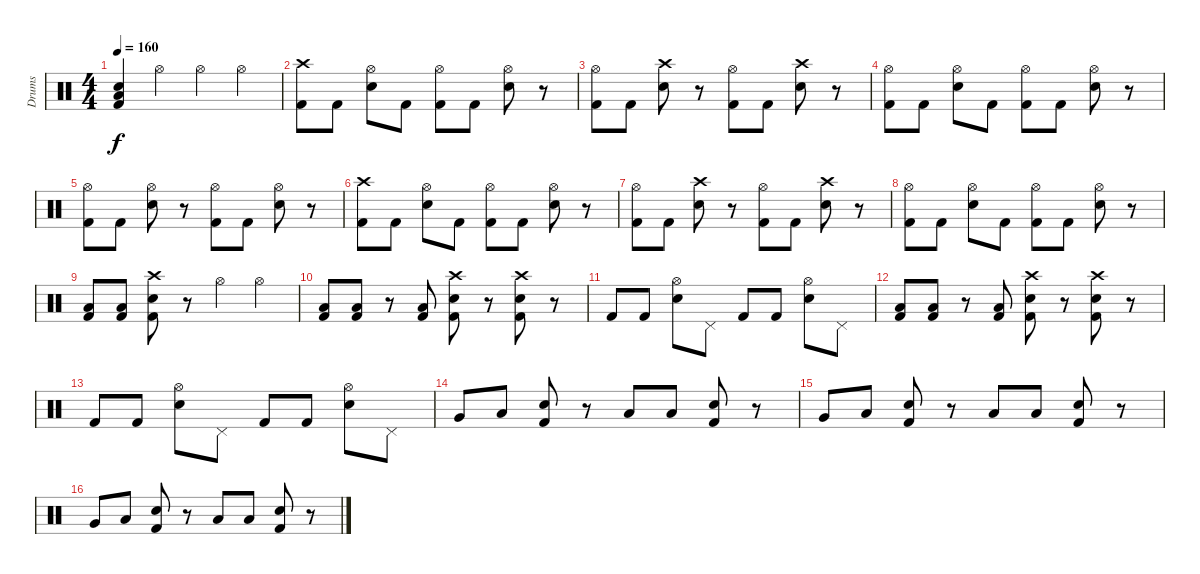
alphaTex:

\track ("Drums" "Drums") {instrument percussion}
\staff {score}
\articulation defaults
\ts (4 4)
\tempo 160
\clef neutral
\ks c
("Low Tom (hit)" "Snare (hit) 2" "Kick (hit) 2").4{dy f} "Hi-Hat (open)".4 "Hi-Hat (open)".4 "Hi-Hat (open)".4 |
("Crash high (hit)" "Kick (hit) 2").8 "Kick (hit) 2".8 ("Hi-Hat (open)" "Snare (hit) 2").8 "Kick (hit) 2".8 ("Hi-Hat (open)" "Kick (hit) 2").8 "Kick (hit) 2".8 ("Hi-Hat (open)" "Snare (hit) 2").8 r.8 |
("Hi-Hat (open)" "Kick (hit) 2").8 "Kick (hit) 2".8 ("Crash high (hit)" "Snare (hit) 2").8 r.8 ("Hi-Hat (open)" "Kick (hit) 2").8 "Kick (hit) 2".8 ("Crash high (hit)" "Snare (hit) 2").8 r.8 |
("Hi-Hat (open)" "Kick (hit) 2").8 "Kick (hit) 2".8 ("Hi-Hat (open)" "Snare (hit) 2").8 "Kick (hit) 2".8 ("Hi-Hat (open)" "Kick (hit) 2").8 "Kick (hit) 2".8 ("Hi-Hat (open)" "Snare (hit) 2").8 r.8 |
("Hi-Hat (open)" "Kick (hit) 2").8 "Kick (hit) 2".8 ("Hi-Hat (open)" "Snare (hit) 2").8 r.8 ("Hi-Hat (open)" "Kick (hit) 2").8 "Kick (hit) 2".8 ("Hi-Hat (open)" "Snare (hit) 2").8 r.8 |
("Crash high (hit)" "Kick (hit) 2").8 "Kick (hit) 2".8 ("Hi-Hat (open)" "Snare (hit) 2").8 "Kick (hit) 2".8 ("Hi-Hat (open)" "Kick (hit) 2").8 "Kick (hit) 2".8 ("Hi-Hat (open)" "Snare (hit) 2").8 r.8 |
("Hi-Hat (open)" "Kick (hit) 2").8 "Kick (hit) 2".8 ("Crash high (hit)" "Snare (hit) 2").8 r.8 ("Hi-Hat (open)" "Kick (hit) 2").8 "Kick (hit) 2".8 ("Crash high (hit)" "Snare (hit) 2").8 r.8 |
("Hi-Hat (open)" "Kick (hit) 2").8 "Kick (hit) 2".8 ("Hi-Hat (open)" "Snare (hit) 2").8 "Kick (hit) 2".8 ("Hi-Hat (open)" "Kick (hit) 2").8 "Kick (hit) 2".8 ("Hi-Hat (open)" "Snare (hit) 2").8 r.8 |
("Low Tom (hit)" "Kick (hit) 2").8 ("Low Tom (hit)" "Kick (hit) 2").8 ("Crash high (hit)" "Snare (hit) 2" "Kick (hit) 2").8 r.8 "Hi-Hat (open)".4 "Hi-Hat (open)".4 |
("Low Tom (hit)" "Kick (hit) 2").8 ("Low Tom (hit)" "Kick (hit) 2").8 r.8 ("Low Tom (hit)" "Kick (hit) 2").8 ("Crash high (hit)" "Snare (hit) 2" "Kick (hit) 2").8 r.8 ("Crash high (hit)" "Snare (hit) 2" "Kick (hit) 2").8 r.8 |
"Kick (hit) 2".8 "Kick (hit) 2".8 ("Hi-Hat (open)" "Snare (hit) 2").8 "Pedal Hi-Hat (hit)".8 "Kick (hit) 2".8 "Kick (hit) 2".8 ("Hi-Hat (open)" "Snare (hit) 2").8 "Pedal Hi-Hat (hit)".8 |
("Low Tom (hit)" "Kick (hit) 2").8 ("Low Tom (hit)" "Kick (hit) 2").8 r.8 ("Low Tom (hit)" "Kick (hit) 2").8 ("Crash high (hit)" "Snare (hit) 2" "Kick (hit) 2").8 r.8 ("Crash high (hit)" "Snare (hit) 2" "Kick (hit) 2").8 r.8 |
"Kick (hit) 2".8 "Kick (hit) 2".8 ("Hi-Hat (open)" "Snare (hit) 2").8 "Pedal Hi-Hat (hit)".8 "Kick (hit) 2".8 "Kick (hit) 2".8 ("Hi-Hat (open)" "Snare (hit) 2").8 "Pedal Hi-Hat (hit)".8 |
"Very Low Tom (hit)".8 "Low Tom (hit)".8 ("Snare (hit) 2" "Kick (hit) 2").8 r.8 "Low Tom (hit)".8 "Low Tom (hit)".8 ("Snare (hit) 2" "Kick (hit) 2").8 r.8 |
"Very Low Tom (hit)".8 "Low Tom (hit)".8 ("Snare (hit) 2" "Kick (hit) 2").8 r.8 "Low Tom (hit)".8 "Low Tom (hit)".8 ("Snare (hit) 2" "Kick (hit) 2").8 r.8 |
"Very Low Tom (hit)".8 "Low Tom (hit)".8 ("Snare (hit) 2" "Kick (hit) 2").8 r.8 "Low Tom (hit)".8 "Low Tom (hit)".8 ("Snare (hit) 2" "Kick (hit) 2").8 r.8
